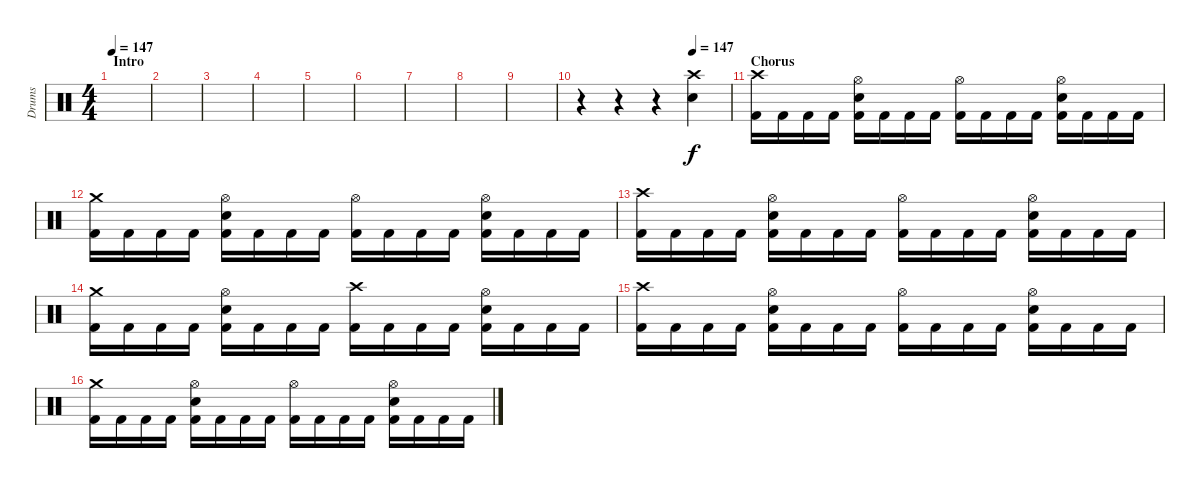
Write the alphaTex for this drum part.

\track ("Drums" "Drums") {instrument percussion}
\staff {score}
\articulation defaults
\ts (4 4)
\section ("" "Intro")
\tempo 147
\tempo 110
\tempo 147
\clef neutral
\ks c
|
|
|
|
|
|
|
|
|
\tempo (147 0.75)
r.4 r.4 r.4 ("Crash high (hit)" "Electric Snare (hit)").4 |
\section ("" "Chorus")
("Kick (hit) 2" "Crash high (hit)").16 "Kick (hit) 2".16 "Kick (hit) 2".16 "Kick (hit) 2".16 ("Kick (hit) 2" "Electric Snare (hit)" "Hi-Hat (open)").16 "Kick (hit) 2".16 "Kick (hit) 2".16 "Kick (hit) 2".16 ("Kick (hit) 2" "Hi-Hat (open)").16 "Kick (hit) 2".16 "Kick (hit) 2".16 "Kick (hit) 2".16 ("Kick (hit) 2" "Electric Snare (hit)" "Hi-Hat (open)").16 "Kick (hit) 2".16 "Kick (hit) 2".16 "Kick (hit) 2".16 |
("Kick (hit) 2" "Crash medium (hit)").16 "Kick (hit) 2".16 "Kick (hit) 2".16 "Kick (hit) 2".16 ("Kick (hit) 2" "Electric Snare (hit)" "Hi-Hat (open)").16 "Kick (hit) 2".16 "Kick (hit) 2".16 "Kick (hit) 2".16 ("Kick (hit) 2" "Hi-Hat (open)").16 "Kick (hit) 2".16 "Kick (hit) 2".16 "Kick (hit) 2".16 ("Kick (hit) 2" "Electric Snare (hit)" "Hi-Hat (open)").16 "Kick (hit) 2".16 "Kick (hit) 2".16 "Kick (hit) 2".16 |
("Kick (hit) 2" "Crash high (hit)").16 "Kick (hit) 2".16 "Kick (hit) 2".16 "Kick (hit) 2".16 ("Kick (hit) 2" "Electric Snare (hit)" "Hi-Hat (open)").16 "Kick (hit) 2".16 "Kick (hit) 2".16 "Kick (hit) 2".16 ("Kick (hit) 2" "Hi-Hat (open)").16 "Kick (hit) 2".16 "Kick (hit) 2".16 "Kick (hit) 2".16 ("Kick (hit) 2" "Electric Snare (hit)" "Hi-Hat (open)").16 "Kick (hit) 2".16 "Kick (hit) 2".16 "Kick (hit) 2".16 |
("Kick (hit) 2" "Crash medium (hit)").16 "Kick (hit) 2".16 "Kick (hit) 2".16 "Kick (hit) 2".16 ("Kick (hit) 2" "Electric Snare (hit)" "Hi-Hat (open)").16 "Kick (hit) 2".16 "Kick (hit) 2".16 "Kick (hit) 2".16 ("Kick (hit) 2" "Crash high (hit)").16 "Kick (hit) 2".16 "Kick (hit) 2".16 "Kick (hit) 2".16 ("Kick (hit) 2" "Electric Snare (hit)" "Hi-Hat (open)").16 "Kick (hit) 2".16 "Kick (hit) 2".16 "Kick (hit) 2".16 |
("Kick (hit) 2" "Crash high (hit)").16 "Kick (hit) 2".16 "Kick (hit) 2".16 "Kick (hit) 2".16 ("Kick (hit) 2" "Electric Snare (hit)" "Hi-Hat (open)").16 "Kick (hit) 2".16 "Kick (hit) 2".16 "Kick (hit) 2".16 ("Kick (hit) 2" "Hi-Hat (open)").16 "Kick (hit) 2".16 "Kick (hit) 2".16 "Kick (hit) 2".16 ("Kick (hit) 2" "Electric Snare (hit)" "Hi-Hat (open)").16 "Kick (hit) 2".16 "Kick (hit) 2".16 "Kick (hit) 2".16 |
("Kick (hit) 2" "Crash medium (hit)").16 "Kick (hit) 2".16 "Kick (hit) 2".16 "Kick (hit) 2".16 ("Kick (hit) 2" "Electric Snare (hit)" "Hi-Hat (open)").16 "Kick (hit) 2".16 "Kick (hit) 2".16 "Kick (hit) 2".16 ("Kick (hit) 2" "Hi-Hat (open)").16 "Kick (hit) 2".16 "Kick (hit) 2".16 "Kick (hit) 2".16 ("Kick (hit) 2" "Electric Snare (hit)" "Hi-Hat (open)").16 "Kick (hit) 2".16 "Kick (hit) 2".16 "Kick (hit) 2".16
